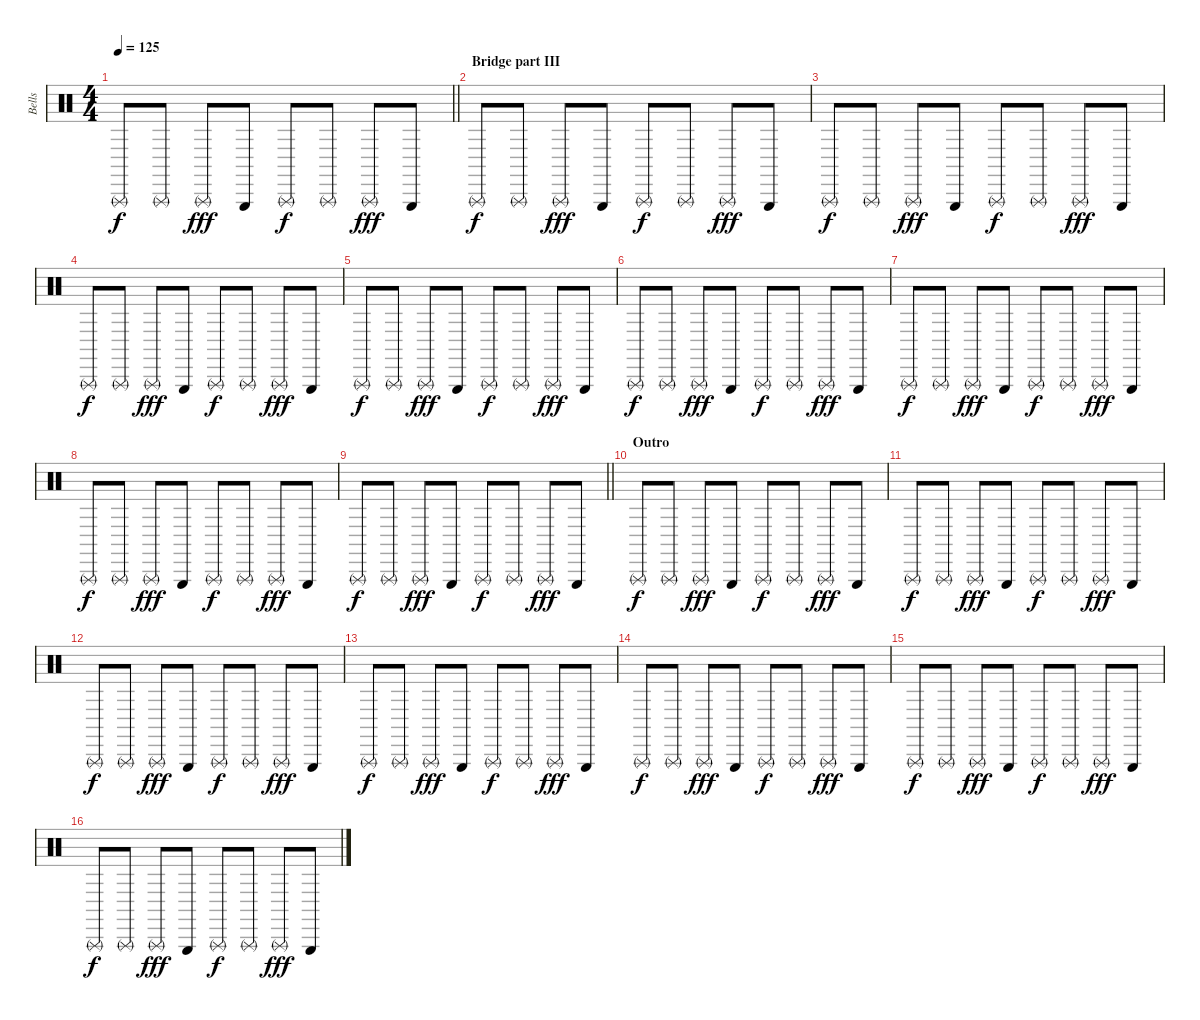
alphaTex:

\track ("Bells" "Bells") {instrument percussion}
\staff
\articulation defaults
\ts (4 4)
\tempo 125
\clef neutral
\barLineRight lightlight
\ks c "Triangle (rnute)".8{dy f} "Triangle (rnute)".8 "Triangle (rnute)".8{dy fff} "Triangle (hit)".8 "Triangle (rnute)".8{dy f} "Triangle (rnute)".8 "Triangle (rnute)".8{dy fff} "Triangle (hit)".8
|
\section ("" "Bridge part III")
"Triangle (rnute)".8{dy f} "Triangle (rnute)".8 "Triangle (rnute)".8{dy fff} "Triangle (hit)".8 "Triangle (rnute)".8{dy f} "Triangle (rnute)".8 "Triangle (rnute)".8{dy fff} "Triangle (hit)".8 |
"Triangle (rnute)".8{dy f} "Triangle (rnute)".8 "Triangle (rnute)".8{dy fff} "Triangle (hit)".8 "Triangle (rnute)".8{dy f} "Triangle (rnute)".8 "Triangle (rnute)".8{dy fff} "Triangle (hit)".8 |
"Triangle (rnute)".8{dy f} "Triangle (rnute)".8 "Triangle (rnute)".8{dy fff} "Triangle (hit)".8 "Triangle (rnute)".8{dy f} "Triangle (rnute)".8 "Triangle (rnute)".8{dy fff} "Triangle (hit)".8 |
"Triangle (rnute)".8{dy f} "Triangle (rnute)".8 "Triangle (rnute)".8{dy fff} "Triangle (hit)".8 "Triangle (rnute)".8{dy f} "Triangle (rnute)".8 "Triangle (rnute)".8{dy fff} "Triangle (hit)".8 |
"Triangle (rnute)".8{dy f} "Triangle (rnute)".8 "Triangle (rnute)".8{dy fff} "Triangle (hit)".8 "Triangle (rnute)".8{dy f} "Triangle (rnute)".8 "Triangle (rnute)".8{dy fff} "Triangle (hit)".8 |
"Triangle (rnute)".8{dy f} "Triangle (rnute)".8 "Triangle (rnute)".8{dy fff} "Triangle (hit)".8 "Triangle (rnute)".8{dy f} "Triangle (rnute)".8 "Triangle (rnute)".8{dy fff} "Triangle (hit)".8 |
"Triangle (rnute)".8{dy f} "Triangle (rnute)".8 "Triangle (rnute)".8{dy fff} "Triangle (hit)".8 "Triangle (rnute)".8{dy f} "Triangle (rnute)".8 "Triangle (rnute)".8{dy fff} "Triangle (hit)".8 |
\barLineRight lightlight "Triangle (rnute)".8{dy f} "Triangle (rnute)".8 "Triangle (rnute)".8{dy fff} "Triangle (hit)".8 "Triangle (rnute)".8{dy f} "Triangle (rnute)".8 "Triangle (rnute)".8{dy fff} "Triangle (hit)".8
|
\section ("" "Outro")
"Triangle (rnute)".8{dy f} "Triangle (rnute)".8 "Triangle (rnute)".8{dy fff} "Triangle (hit)".8 "Triangle (rnute)".8{dy f} "Triangle (rnute)".8 "Triangle (rnute)".8{dy fff} "Triangle (hit)".8 |
"Triangle (rnute)".8{dy f} "Triangle (rnute)".8 "Triangle (rnute)".8{dy fff} "Triangle (hit)".8 "Triangle (rnute)".8{dy f} "Triangle (rnute)".8 "Triangle (rnute)".8{dy fff} "Triangle (hit)".8 |
"Triangle (rnute)".8{dy f} "Triangle (rnute)".8 "Triangle (rnute)".8{dy fff} "Triangle (hit)".8 "Triangle (rnute)".8{dy f} "Triangle (rnute)".8 "Triangle (rnute)".8{dy fff} "Triangle (hit)".8 |
"Triangle (rnute)".8{dy f} "Triangle (rnute)".8 "Triangle (rnute)".8{dy fff} "Triangle (hit)".8 "Triangle (rnute)".8{dy f} "Triangle (rnute)".8 "Triangle (rnute)".8{dy fff} "Triangle (hit)".8 |
"Triangle (rnute)".8{dy f} "Triangle (rnute)".8 "Triangle (rnute)".8{dy fff} "Triangle (hit)".8 "Triangle (rnute)".8{dy f} "Triangle (rnute)".8 "Triangle (rnute)".8{dy fff} "Triangle (hit)".8 |
"Triangle (rnute)".8{dy f} "Triangle (rnute)".8 "Triangle (rnute)".8{dy fff} "Triangle (hit)".8 "Triangle (rnute)".8{dy f} "Triangle (rnute)".8 "Triangle (rnute)".8{dy fff} "Triangle (hit)".8 |
"Triangle (rnute)".8{dy f} "Triangle (rnute)".8 "Triangle (rnute)".8{dy fff} "Triangle (hit)".8 "Triangle (rnute)".8{dy f} "Triangle (rnute)".8 "Triangle (rnute)".8{dy fff} "Triangle (hit)".8
